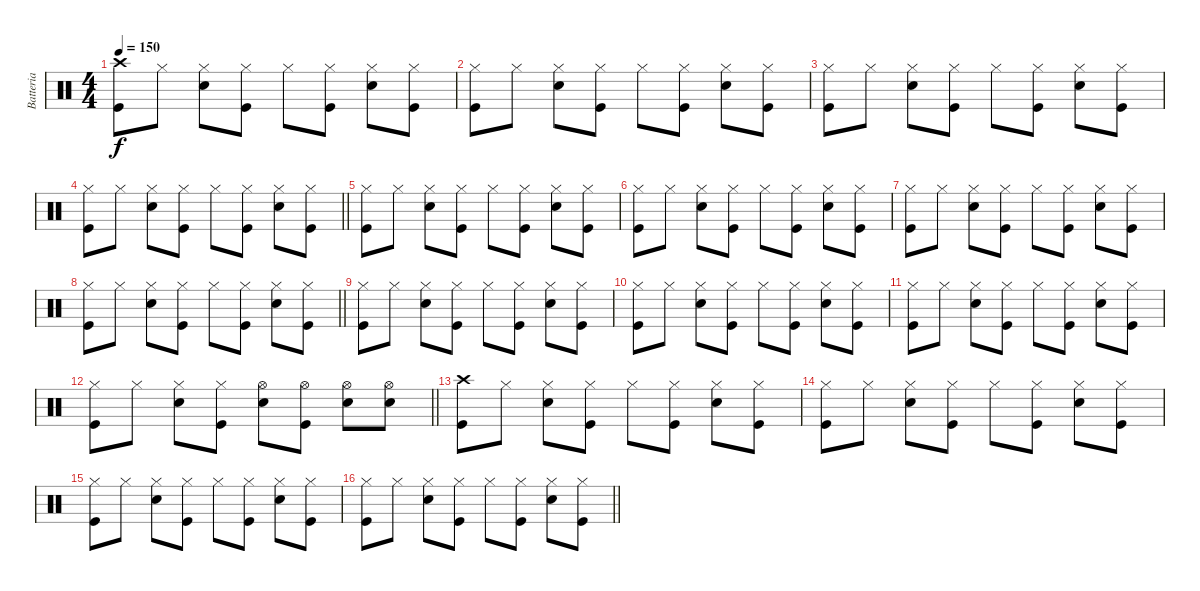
\track ("Batteria" "Batteria") {instrument percussion}
\staff {score}
\articulation defaults
\ts (4 4)
\tempo 150
\clef neutral
\ks c
("Kick (hit)" "Crash high (hit)").8{dy f} "Hi-Hat (closed)".8 ("Snare (hit) 2" "Hi-Hat (closed)").8 ("Kick (hit)" "Hi-Hat (closed)").8 "Hi-Hat (closed)".8 ("Kick (hit)" "Hi-Hat (closed)").8 ("Snare (hit) 2" "Hi-Hat (closed)").8 ("Kick (hit)" "Hi-Hat (closed)").8 |
("Kick (hit)" "Hi-Hat (closed)").8 "Hi-Hat (closed)".8 ("Snare (hit) 2" "Hi-Hat (closed)").8 ("Kick (hit)" "Hi-Hat (closed)").8 "Hi-Hat (closed)".8 ("Kick (hit)" "Hi-Hat (closed)").8 ("Snare (hit) 2" "Hi-Hat (closed)").8 ("Kick (hit)" "Hi-Hat (closed)").8 |
("Kick (hit)" "Hi-Hat (closed)").8 "Hi-Hat (closed)".8 ("Snare (hit) 2" "Hi-Hat (closed)").8 ("Kick (hit)" "Hi-Hat (closed)").8 "Hi-Hat (closed)".8 ("Kick (hit)" "Hi-Hat (closed)").8 ("Snare (hit) 2" "Hi-Hat (closed)").8 ("Kick (hit)" "Hi-Hat (closed)").8 |
\barLineRight lightlight
("Kick (hit)" "Hi-Hat (closed)").8 "Hi-Hat (closed)".8 ("Snare (hit) 2" "Hi-Hat (closed)").8 ("Kick (hit)" "Hi-Hat (closed)").8 "Hi-Hat (closed)".8 ("Kick (hit)" "Hi-Hat (closed)").8 ("Snare (hit) 2" "Hi-Hat (closed)").8 ("Kick (hit)" "Hi-Hat (closed)").8 |
("Kick (hit)" "Hi-Hat (closed)").8 "Hi-Hat (closed)".8 ("Snare (hit) 2" "Hi-Hat (closed)").8 ("Kick (hit)" "Hi-Hat (closed)").8 "Hi-Hat (closed)".8 ("Kick (hit)" "Hi-Hat (closed)").8 ("Snare (hit) 2" "Hi-Hat (closed)").8 ("Kick (hit)" "Hi-Hat (closed)").8 |
("Kick (hit)" "Hi-Hat (closed)").8 "Hi-Hat (closed)".8 ("Snare (hit) 2" "Hi-Hat (closed)").8 ("Kick (hit)" "Hi-Hat (closed)").8 "Hi-Hat (closed)".8 ("Kick (hit)" "Hi-Hat (closed)").8 ("Snare (hit) 2" "Hi-Hat (closed)").8 ("Kick (hit)" "Hi-Hat (closed)").8 |
("Kick (hit)" "Hi-Hat (closed)").8 "Hi-Hat (closed)".8 ("Snare (hit) 2" "Hi-Hat (closed)").8 ("Kick (hit)" "Hi-Hat (closed)").8 "Hi-Hat (closed)".8 ("Kick (hit)" "Hi-Hat (closed)").8 ("Snare (hit) 2" "Hi-Hat (closed)").8 ("Kick (hit)" "Hi-Hat (closed)").8 |
\barLineRight lightlight
("Kick (hit)" "Hi-Hat (closed)").8 "Hi-Hat (closed)".8 ("Snare (hit) 2" "Hi-Hat (closed)").8 ("Kick (hit)" "Hi-Hat (closed)").8 "Hi-Hat (closed)".8 ("Kick (hit)" "Hi-Hat (closed)").8 ("Snare (hit) 2" "Hi-Hat (closed)").8 ("Kick (hit)" "Hi-Hat (closed)").8 |
("Kick (hit)" "Hi-Hat (closed)").8 "Hi-Hat (closed)".8 ("Snare (hit) 2" "Hi-Hat (closed)").8 ("Kick (hit)" "Hi-Hat (closed)").8 "Hi-Hat (closed)".8 ("Kick (hit)" "Hi-Hat (closed)").8 ("Snare (hit) 2" "Hi-Hat (closed)").8 ("Kick (hit)" "Hi-Hat (closed)").8 |
("Kick (hit)" "Hi-Hat (closed)").8 "Hi-Hat (closed)".8 ("Snare (hit) 2" "Hi-Hat (closed)").8 ("Kick (hit)" "Hi-Hat (closed)").8 "Hi-Hat (closed)".8 ("Kick (hit)" "Hi-Hat (closed)").8 ("Snare (hit) 2" "Hi-Hat (closed)").8 ("Kick (hit)" "Hi-Hat (closed)").8 |
("Kick (hit)" "Hi-Hat (closed)").8 "Hi-Hat (closed)".8 ("Snare (hit) 2" "Hi-Hat (closed)").8 ("Kick (hit)" "Hi-Hat (closed)").8 "Hi-Hat (closed)".8 ("Kick (hit)" "Hi-Hat (closed)").8 ("Snare (hit) 2" "Hi-Hat (closed)").8 ("Kick (hit)" "Hi-Hat (closed)").8 |
\barLineRight lightlight
("Kick (hit)" "Hi-Hat (closed)").8 "Hi-Hat (closed)".8 ("Snare (hit) 2" "Hi-Hat (closed)").8 ("Kick (hit)" "Hi-Hat (closed)").8 ("Snare (hit) 2" "Hi-Hat (open)").8 ("Kick (hit)" "Hi-Hat (open)").8 ("Snare (hit) 2" "Hi-Hat (open)").8 ("Snare (hit) 2" "Hi-Hat (open)").8 |
("Kick (hit)" "Crash high (hit)").8 "Hi-Hat (closed)".8 ("Snare (hit) 2" "Hi-Hat (closed)").8 ("Kick (hit)" "Hi-Hat (closed)").8 "Hi-Hat (closed)".8 ("Kick (hit)" "Hi-Hat (closed)").8 ("Snare (hit) 2" "Hi-Hat (closed)").8 ("Kick (hit)" "Hi-Hat (closed)").8 |
("Kick (hit)" "Hi-Hat (closed)").8 "Hi-Hat (closed)".8 ("Snare (hit) 2" "Hi-Hat (closed)").8 ("Kick (hit)" "Hi-Hat (closed)").8 "Hi-Hat (closed)".8 ("Kick (hit)" "Hi-Hat (closed)").8 ("Snare (hit) 2" "Hi-Hat (closed)").8 ("Kick (hit)" "Hi-Hat (closed)").8 |
("Kick (hit)" "Hi-Hat (closed)").8 "Hi-Hat (closed)".8 ("Snare (hit) 2" "Hi-Hat (closed)").8 ("Kick (hit)" "Hi-Hat (closed)").8 "Hi-Hat (closed)".8 ("Kick (hit)" "Hi-Hat (closed)").8 ("Snare (hit) 2" "Hi-Hat (closed)").8 ("Kick (hit)" "Hi-Hat (closed)").8 |
\barLineRight lightlight
("Kick (hit)" "Hi-Hat (closed)").8 "Hi-Hat (closed)".8 ("Snare (hit) 2" "Hi-Hat (closed)").8 ("Kick (hit)" "Hi-Hat (closed)").8 "Hi-Hat (closed)".8 ("Kick (hit)" "Hi-Hat (closed)").8 ("Snare (hit) 2" "Hi-Hat (closed)").8 ("Kick (hit)" "Hi-Hat (closed)").8
